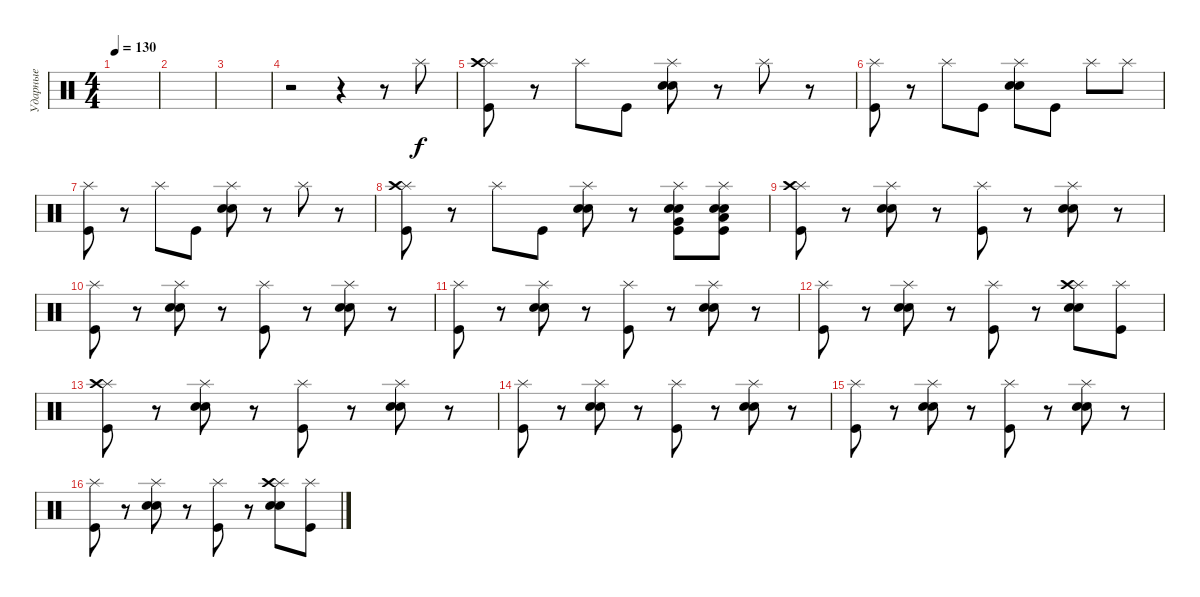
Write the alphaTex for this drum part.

\track ("Ударные" "Ударные") {instrument percussion}
\staff {score}
\articulation defaults
\ts (4 4)
\tempo 130
\clef neutral
\ks c
|
|
|
r.2 r.4 r.8 "Splash (hit)".8 |
("Splash (hit)" "Crash high (hit)" "Kick (hit)").8 r.8 "Splash (hit)".8 "Kick (hit)".8 ("Splash (hit)" "Electric Snare (hit)" "Electric Snare (hit)").8 r.8 "Splash (hit)".8 r.8 |
("Splash (hit)" "Kick (hit)").8 r.8 "Splash (hit)".8 "Kick (hit)".8 ("Splash (hit)" "Electric Snare (hit)" "Electric Snare (hit)").8 "Kick (hit)".8 "Splash (hit)".8 "Splash (hit)".8 |
("Splash (hit)" "Kick (hit)").8 r.8 "Splash (hit)".8 "Kick (hit)".8 ("Splash (hit)" "Electric Snare (hit)" "Electric Snare (hit)").8 r.8 "Splash (hit)".8 r.8 |
("Splash (hit)" "Crash high (hit)" "Kick (hit)").8 r.8 "Splash (hit)".8 "Kick (hit)".8 ("Splash (hit)" "Electric Snare (hit)" "Electric Snare (hit)").8 r.8 ("Splash (hit)" "Very Low Tom (hit)" "Electric Snare (hit)" "Electric Snare (hit)" "Kick (hit)").8 ("Splash (hit)" "Low Floor Tom (hit)" "Electric Snare (hit)" "Electric Snare (hit)" "Kick (hit)").8 |
("Splash (hit)" "Crash high (hit)" "Kick (hit)").8 r.8 ("Splash (hit)" "Electric Snare (hit)" "Electric Snare (hit)").8 r.8 ("Splash (hit)" "Kick (hit)").8 r.8 ("Splash (hit)" "Electric Snare (hit)" "Electric Snare (hit)").8 r.8 |
("Splash (hit)" "Kick (hit)").8 r.8 ("Splash (hit)" "Electric Snare (hit)" "Electric Snare (hit)").8 r.8 ("Splash (hit)" "Kick (hit)").8 r.8 ("Splash (hit)" "Electric Snare (hit)" "Electric Snare (hit)").8 r.8 |
("Splash (hit)" "Kick (hit)").8 r.8 ("Splash (hit)" "Electric Snare (hit)" "Electric Snare (hit)").8 r.8 ("Splash (hit)" "Kick (hit)").8 r.8 ("Splash (hit)" "Electric Snare (hit)" "Electric Snare (hit)").8 r.8 |
("Splash (hit)" "Kick (hit)").8 r.8 ("Splash (hit)" "Electric Snare (hit)" "Electric Snare (hit)").8 r.8 ("Splash (hit)" "Kick (hit)").8 r.8 ("Splash (hit)" "Crash high (hit)" "Electric Snare (hit)" "Electric Snare (hit)").8 ("Splash (hit)" "Kick (hit)").8 |
("Splash (hit)" "Crash high (hit)" "Kick (hit)").8 r.8 ("Splash (hit)" "Electric Snare (hit)" "Electric Snare (hit)").8 r.8 ("Splash (hit)" "Kick (hit)").8 r.8 ("Splash (hit)" "Electric Snare (hit)" "Electric Snare (hit)").8 r.8 |
("Splash (hit)" "Kick (hit)").8 r.8 ("Splash (hit)" "Electric Snare (hit)" "Electric Snare (hit)").8 r.8 ("Splash (hit)" "Kick (hit)").8 r.8 ("Splash (hit)" "Electric Snare (hit)" "Electric Snare (hit)").8 r.8 |
("Splash (hit)" "Kick (hit)").8 r.8 ("Splash (hit)" "Electric Snare (hit)" "Electric Snare (hit)").8 r.8 ("Splash (hit)" "Kick (hit)").8 r.8 ("Splash (hit)" "Electric Snare (hit)" "Electric Snare (hit)").8 r.8 |
("Splash (hit)" "Kick (hit)").8 r.8 ("Splash (hit)" "Electric Snare (hit)" "Electric Snare (hit)").8 r.8 ("Splash (hit)" "Kick (hit)").8 r.8 ("Splash (hit)" "Crash high (hit)" "Electric Snare (hit)" "Electric Snare (hit)").8 ("Splash (hit)" "Kick (hit)").8
